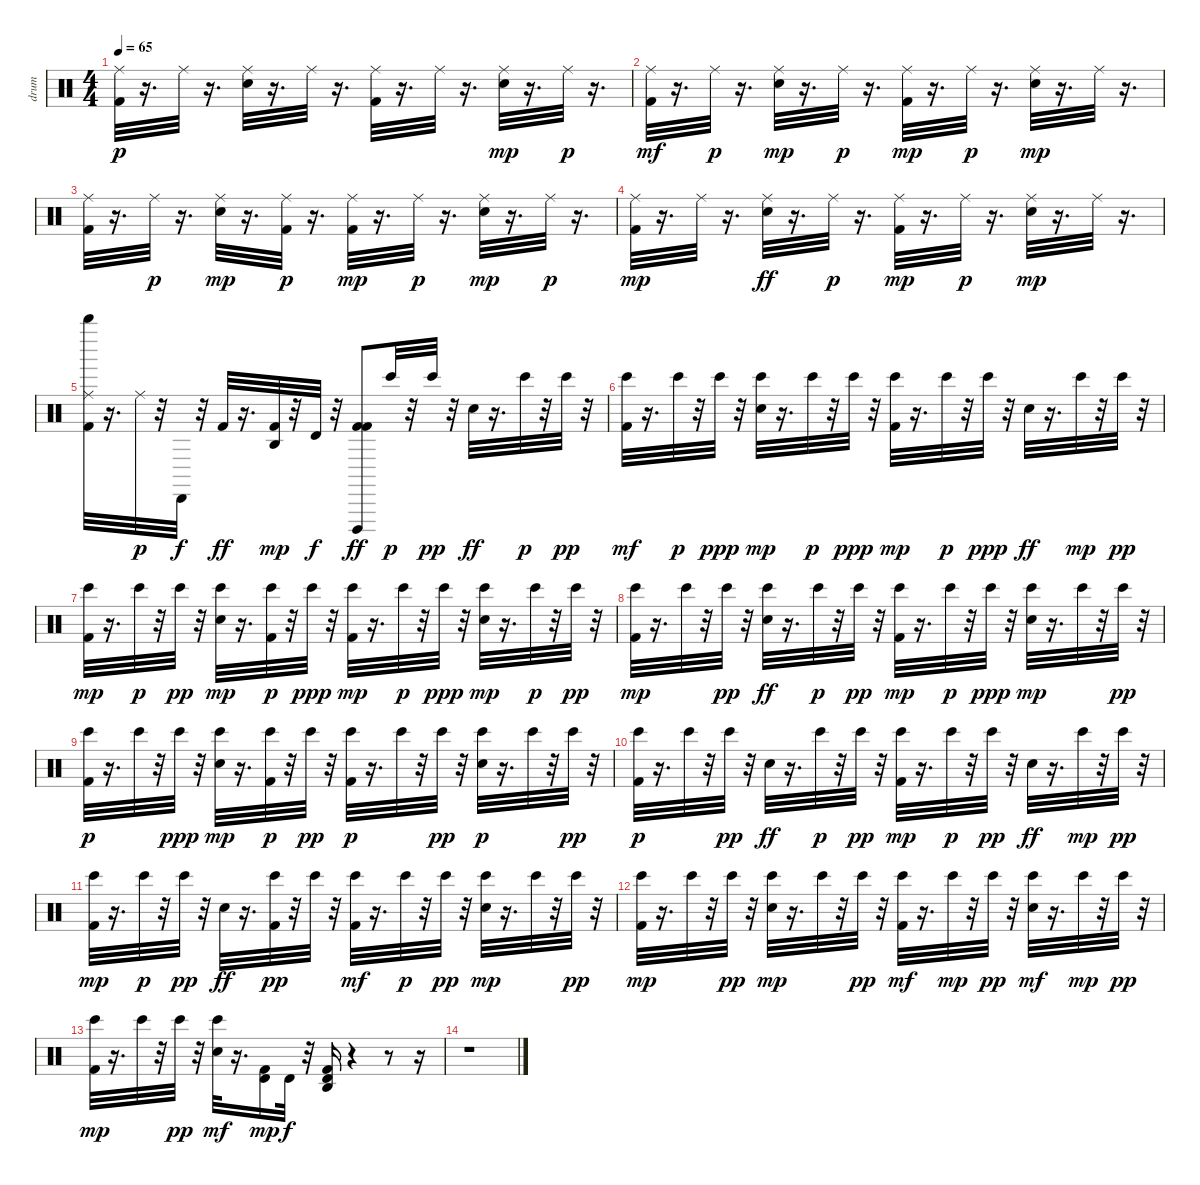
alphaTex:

\track ("drum" "drum") {instrument percussion}
\staff {score}
\articulation defaults
\ts (4 4)
\tempo 65
\clef neutral
\ks c
("Kick (hit) 2" "Ride (middle)").32{dy p} r.16{d} "Ride (middle)".32 r.16{d} ("Snare (hit) 2" "Ride (middle)").32 r.16{d} "Ride (middle)".32 r.16{d} ("Kick (hit) 2" "Ride (middle)").32 r.16{d} "Ride (middle)".32 r.16{d} ("Snare (hit) 2" "Ride (middle)").32{dy mp} r.16{d} "Ride (middle)".32{dy p} r.16{d} |
("Ride (middle)" "Kick (hit) 2").32{dy mf} r.16{d} "Ride (middle)".32{dy p} r.16{d} ("Snare (hit) 2" "Ride (middle)").32{dy mp} r.16{d} "Ride (middle)".32{dy p} r.16{d} ("Kick (hit) 2" "Ride (middle)").32{dy mp} r.16{d} "Ride (middle)".32{dy p} r.16{d} ("Snare (hit) 2" "Ride (middle)").32{dy mp} r.16{d} "Ride (middle)".32 r.16{d} |
("Kick (hit) 2" "Ride (middle)").32 r.16{d} "Ride (middle)".32{dy p} r.16{d} ("Snare (hit) 2" "Ride (middle)").32{dy mp} r.16{d} ("Kick (hit) 2" "Ride (middle)").32{dy p} r.16{d} ("Kick (hit) 2" "Ride (middle)").32{dy mp} r.16{d} "Ride (middle)".32{dy p} r.16{d} ("Snare (hit) 2" "Ride (middle)").32{dy mp} r.16{d} "Ride (middle)".32{dy p} r.16{d} |
("Ride (middle)" "Kick (hit) 2").32{dy mp} r.16{d} "Ride (middle)".32 r.16{d} ("Ride (middle)" "Snare (hit) 2").32{dy ff} r.16{d} "Ride (middle)".32{dy p} r.16{d} ("Kick (hit) 2" "Ride (middle)").32{dy mp} r.16{d} "Ride (middle)".32{dy p} r.16{d} ("Snare (hit) 2" "Ride (middle)").32{dy mp} r.16{d} "Ride (middle)".32 r.16{d} |
("Kick (hit) 2" "Whistle high (hit)" "Ride (middle)").32 r.16{d} "Ride (middle)".32{dy p} r.32 "Cabasa (hit)".32{dy f} r.32 "Kick (hit) 2".32{dy ff} r.16{d} ("Kick (hit) 2" "Agogo high (hit)").32{dy mp} r.32 "Timbale high (hit)".32{dy f} r.32 ("Kick (hit) 2" "Kick (hit) 2" "Cuica (open)").8{dy ff} "Bongo High (hit)".32{dy p} r.32 "Bongo High (hit)".32{dy pp} r.32 "Snare (hit) 2".32{dy ff} r.16{d} "Bongo High (hit)".32{dy p} r.32 "Bongo High (hit)".32{dy pp} r.32 |
("Bongo High (hit)" "Kick (hit) 2").32{dy mf} r.16{d} "Bongo High (hit)".32{dy p} r.32 "Bongo High (hit)".32{dy ppp} r.32 ("Snare (hit) 2" "Bongo High (hit)").32{dy mp} r.16{d} "Bongo High (hit)".32{dy p} r.32 "Bongo High (hit)".32{dy ppp} r.32 ("Kick (hit) 2" "Bongo High (hit)").32{dy mp} r.16{d} "Bongo High (hit)".32{dy p} r.32 "Bongo High (hit)".32{dy ppp} r.32 "Snare (hit) 2".32{dy ff} r.16{d} "Bongo High (hit)".32{dy mp} r.32 "Bongo High (hit)".32{dy pp} r.32 |
("Kick (hit) 2" "Bongo High (hit)").32{dy mp} r.16{d} "Bongo High (hit)".32{dy p} r.32 "Bongo High (hit)".32{dy pp} r.32 ("Snare (hit) 2" "Bongo High (hit)").32{dy mp} r.16{d} ("Kick (hit) 2" "Bongo High (hit)").32{dy p} r.32 "Bongo High (hit)".32{dy ppp} r.32 ("Kick (hit) 2" "Bongo High (hit)").32{dy mp} r.16{d} "Bongo High (hit)".32{dy p} r.32 "Bongo High (hit)".32{dy ppp} r.32 ("Snare (hit) 2" "Bongo High (hit)").32{dy mp} r.16{d} "Bongo High (hit)".32{dy p} r.32 "Bongo High (hit)".32{dy pp} r.32 |
("Bongo High (hit)" "Kick (hit) 2").32{dy mp} r.16{d} "Bongo High (hit)".32 r.32 "Bongo High (hit)".32{dy pp} r.32 ("Bongo High (hit)" "Snare (hit) 2").32{dy ff} r.16{d} "Bongo High (hit)".32{dy p} r.32 "Bongo High (hit)".32{dy pp} r.32 ("Kick (hit) 2" "Bongo High (hit)").32{dy mp} r.16{d} "Bongo High (hit)".32{dy p} r.32 "Bongo High (hit)".32{dy ppp} r.32 ("Snare (hit) 2" "Bongo High (hit)").32{dy mp} r.16{d} "Bongo High (hit)".32 r.32 "Bongo High (hit)".32{dy pp} r.32 |
("Kick (hit) 2" "Bongo High (hit)").32{dy p} r.16{d} "Bongo High (hit)".32 r.32 "Bongo High (hit)".32{dy ppp} r.32 ("Snare (hit) 2" "Bongo High (hit)").32{dy mp} r.16{d} ("Kick (hit) 2" "Bongo High (hit)").32{dy p} r.32 "Bongo High (hit)".32{dy pp} r.32 ("Kick (hit) 2" "Bongo High (hit)").32{dy p} r.16{d} "Bongo High (hit)".32 r.32 "Bongo High (hit)".32{dy pp} r.32 ("Snare (hit) 2" "Bongo High (hit)").32{dy p} r.16{d} "Bongo High (hit)".32 r.32 "Bongo High (hit)".32{dy pp} r.32 |
("Kick (hit) 2" "Bongo High (hit)").32{dy p} r.16{d} "Bongo High (hit)".32 r.32 "Bongo High (hit)".32{dy pp} r.32 "Snare (hit) 2".32{dy ff} r.16{d} "Bongo High (hit)".32{dy p} r.32 "Bongo High (hit)".32{dy pp} r.32 ("Bongo High (hit)" "Kick (hit) 2").32{dy mp} r.16{d} "Bongo High (hit)".32{dy p} r.32 "Bongo High (hit)".32{dy pp} r.32 "Snare (hit) 2".32{dy ff} r.16{d} "Bongo High (hit)".32{dy mp} r.32 "Bongo High (hit)".32{dy pp} r.32 |
("Kick (hit) 2" "Bongo High (hit)").32{dy mp} r.16{d} "Bongo High (hit)".32{dy p} r.32 "Bongo High (hit)".32{dy pp} r.32 "Snare (hit) 2".32{dy ff} r.16{d} ("Kick (hit) 2" "Bongo High (hit)").32{dy pp} r.32 "Bongo High (hit)".32 r.32 ("Bongo High (hit)" "Kick (hit) 2").32{dy mf} r.16{d} "Bongo High (hit)".32{dy p} r.32 "Bongo High (hit)".32{dy pp} r.32 ("Snare (hit) 2" "Bongo High (hit)").32{dy mp} r.16{d} "Bongo High (hit)".32 r.32 "Bongo High (hit)".32{dy pp} r.32 |
("Bongo High (hit)" "Kick (hit) 2").32{dy mp} r.16{d} "Bongo High (hit)".32 r.32 "Bongo High (hit)".32{dy pp} r.32 ("Snare (hit) 2" "Bongo High (hit)").32{dy mp} r.16{d} "Bongo High (hit)".32 r.32 "Bongo High (hit)".32{dy pp} r.32 ("Bongo High (hit)" "Kick (hit) 2").32{dy mf} r.16{d} "Bongo High (hit)".32{dy mp} r.32 "Bongo High (hit)".32{dy pp} r.32 ("Snare (hit) 2" "Bongo High (hit)").32{dy mf} r.16{d} "Bongo High (hit)".32{dy mp} r.32 "Bongo High (hit)".32{dy pp} r.32 |
("Kick (hit) 2" "Bongo High (hit)").32{dy mp} r.16{d} "Bongo High (hit)".32 r.32 "Bongo High (hit)".32{dy pp} r.32 ("Snare (hit) 2" "Bongo High (hit)").32{dy mf} r.16{d} ("Kick (hit) 2" "Timbale high (hit)").16{dy mp} "Timbale high (hit)".32{dy f} r.32 ("Kick (hit) 2" "Timbale high (hit)" "Agogo high (hit)").16 r.4 r.8 r.16 |
r.1
